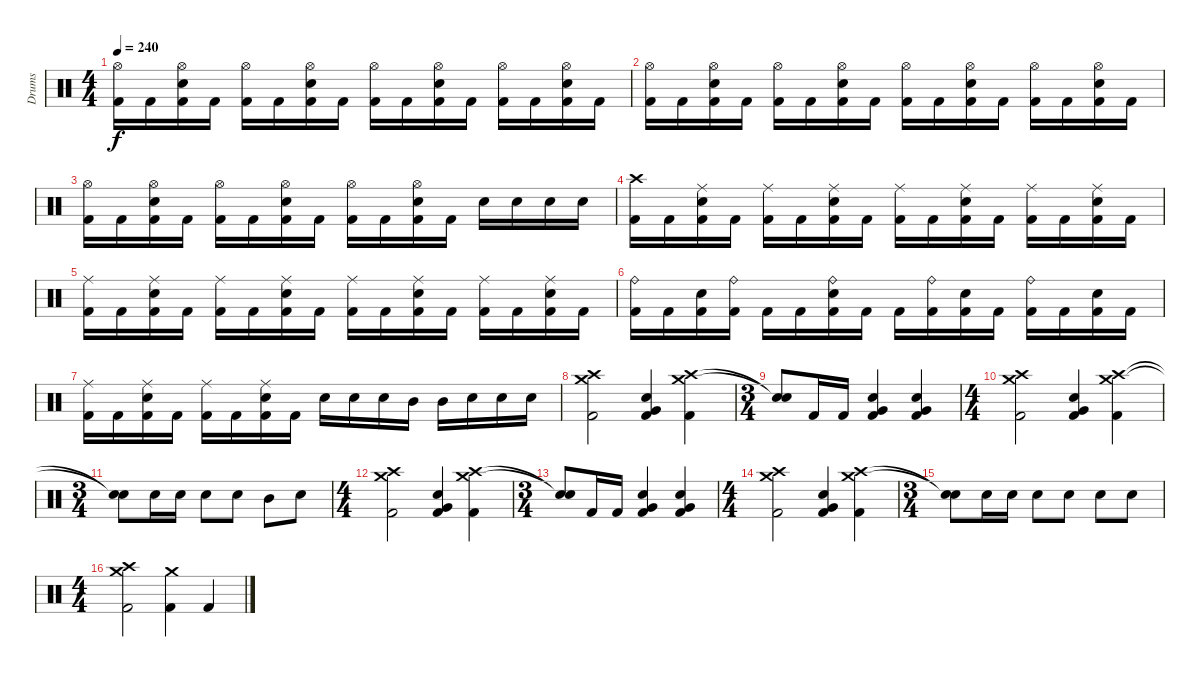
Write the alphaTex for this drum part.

\track ("Drums" "Drums") {instrument percussion}
\staff {score}
\articulation defaults
\ts (4 4)
\tempo 240
\clef neutral
\ks c
("Hi-Hat (open)" "Kick (hit) 2").16{dy f} "Kick (hit) 2".16 ("Hi-Hat (open)" "Electric Snare (hit)" "Kick (hit) 2").16 "Kick (hit) 2".16 ("Hi-Hat (open)" "Kick (hit) 2").16 "Kick (hit) 2".16 ("Hi-Hat (open)" "Electric Snare (hit)" "Kick (hit) 2").16 "Kick (hit) 2".16 ("Hi-Hat (open)" "Kick (hit) 2").16 "Kick (hit) 2".16 ("Hi-Hat (open)" "Electric Snare (hit)" "Kick (hit) 2").16 "Kick (hit) 2".16 ("Hi-Hat (open)" "Kick (hit) 2").16 "Kick (hit) 2".16 ("Hi-Hat (open)" "Electric Snare (hit)" "Kick (hit) 2").16 "Kick (hit) 2".16 |
("Hi-Hat (open)" "Kick (hit) 2").16 "Kick (hit) 2".16 ("Hi-Hat (open)" "Electric Snare (hit)" "Kick (hit) 2").16 "Kick (hit) 2".16 ("Hi-Hat (open)" "Kick (hit) 2").16 "Kick (hit) 2".16 ("Hi-Hat (open)" "Electric Snare (hit)" "Kick (hit) 2").16 "Kick (hit) 2".16 ("Hi-Hat (open)" "Kick (hit) 2").16 "Kick (hit) 2".16 ("Hi-Hat (open)" "Electric Snare (hit)" "Kick (hit) 2").16 "Kick (hit) 2".16 ("Hi-Hat (open)" "Kick (hit) 2").16 "Kick (hit) 2".16 ("Hi-Hat (open)" "Electric Snare (hit)" "Kick (hit) 2").16 "Kick (hit) 2".16 |
("Hi-Hat (open)" "Kick (hit) 2").16 "Kick (hit) 2".16 ("Hi-Hat (open)" "Electric Snare (hit)" "Kick (hit) 2").16 "Kick (hit) 2".16 ("Hi-Hat (open)" "Kick (hit) 2").16 "Kick (hit) 2".16 ("Hi-Hat (open)" "Electric Snare (hit)" "Kick (hit) 2").16 "Kick (hit) 2".16 ("Hi-Hat (open)" "Kick (hit) 2").16 "Kick (hit) 2".16 ("Hi-Hat (open)" "Electric Snare (hit)" "Kick (hit) 2").16 "Kick (hit) 2".16 "Electric Snare (hit)".16 "Electric Snare (hit)".16 "Electric Snare (hit)".16 "Electric Snare (hit)".16 |
("Crash high (hit)" "Kick (hit) 2").16 "Kick (hit) 2".16 ("Ride (middle)" "Electric Snare (hit)" "Kick (hit) 2").16 "Kick (hit) 2".16 ("Ride (middle)" "Kick (hit) 2").16 "Kick (hit) 2".16 ("Ride (middle)" "Electric Snare (hit)" "Kick (hit) 2").16 "Kick (hit) 2".16 ("Ride (middle)" "Kick (hit) 2").16 "Kick (hit) 2".16 ("Ride (middle)" "Electric Snare (hit)" "Kick (hit) 2").16 "Kick (hit) 2".16 ("Ride (middle)" "Kick (hit) 2").16 "Kick (hit) 2".16 ("Ride (middle)" "Electric Snare (hit)" "Kick (hit) 2").16 "Kick (hit) 2".16 |
("Ride (middle)" "Kick (hit) 2").16 "Kick (hit) 2".16 ("Ride (middle)" "Electric Snare (hit)" "Kick (hit) 2").16 "Kick (hit) 2".16 ("Ride (middle)" "Kick (hit) 2").16 "Kick (hit) 2".16 ("Ride (middle)" "Electric Snare (hit)" "Kick (hit) 2").16 "Kick (hit) 2".16 ("Ride (middle)" "Kick (hit) 2").16 "Kick (hit) 2".16 ("Ride (middle)" "Electric Snare (hit)" "Kick (hit) 2").16 "Kick (hit) 2".16 ("Ride (middle)" "Kick (hit) 2").16 "Kick (hit) 2".16 ("Ride (middle)" "Electric Snare (hit)" "Kick (hit) 2").16 "Kick (hit) 2".16 |
("Ride (bell)" "Kick (hit) 2").16 "Kick (hit) 2".16 ("Electric Snare (hit)" "Kick (hit) 2").16 ("Ride (bell)" "Kick (hit) 2").16 "Kick (hit) 2".16 "Kick (hit) 2".16 ("Ride (bell)" "Electric Snare (hit)" "Kick (hit) 2").16 "Kick (hit) 2".16 "Kick (hit) 2".16 ("Ride (bell)" "Kick (hit) 2").16 ("Electric Snare (hit)" "Kick (hit) 2").16 "Kick (hit) 2".16 ("Ride (bell)" "Kick (hit) 2").16 "Kick (hit) 2".16 ("Electric Snare (hit)" "Kick (hit) 2").16 "Kick (hit) 2".16 |
("Ride (middle)" "Kick (hit) 2").16 "Kick (hit) 2".16 ("Ride (middle)" "Electric Snare (hit)" "Kick (hit) 2").16 "Kick (hit) 2".16 ("Ride (middle)" "Kick (hit) 2").16 "Kick (hit) 2".16 ("Ride (middle)" "Electric Snare (hit)" "Kick (hit) 2").16 "Kick (hit) 2".16 "Electric Snare (hit)".16 "Electric Snare (hit)".16 "Electric Snare (hit)".16 "Mid Tom (hit)".16 "Mid Tom (hit)".16 "Electric Snare (hit)".16 "Electric Snare (hit)".16 "Electric Snare (hit)".16 |
("Crash medium (hit)" "Crash high (hit)" "Kick (hit) 2").2 ("Very Low Tom (hit)" "Electric Snare (hit)" "Kick (hit) 2").4 ("Crash medium (hit)" "Crash high (hit)" "Kick (hit) 2").4 |
\ts (3 4)
("Snare (hit)"{t} "Snare (hit)"{t}).8 "Kick (hit) 2".16 "Kick (hit) 2".16 ("Very Low Tom (hit)" "Electric Snare (hit)" "Kick (hit) 2").4 ("Very Low Tom (hit)" "Electric Snare (hit)" "Kick (hit) 2").4 |
\ts (4 4)
("Crash medium (hit)" "Crash high (hit)" "Kick (hit) 2").2 ("Very Low Tom (hit)" "Electric Snare (hit)" "Kick (hit) 2").4 ("Crash medium (hit)" "Crash high (hit)" "Kick (hit) 2").4 |
\ts (3 4)
("Snare (hit)"{t} "Snare (hit)"{t}).8 "Electric Snare (hit)".16 "Electric Snare (hit)".16 "Electric Snare (hit)".8 "Electric Snare (hit)".8 "Mid Tom (hit)".8 "Electric Snare (hit)".8 |
\ts (4 4)
("Crash medium (hit)" "Crash high (hit)" "Kick (hit) 2").2 ("Very Low Tom (hit)" "Electric Snare (hit)" "Kick (hit) 2").4 ("Crash medium (hit)" "Crash high (hit)" "Kick (hit) 2").4 |
\ts (3 4)
("Snare (hit)"{t} "Snare (hit)"{t}).8 "Kick (hit) 2".16 "Kick (hit) 2".16 ("Very Low Tom (hit)" "Electric Snare (hit)" "Kick (hit) 2").4 ("Very Low Tom (hit)" "Electric Snare (hit)" "Kick (hit) 2").4 |
\ts (4 4)
("Crash medium (hit)" "Crash high (hit)" "Kick (hit) 2").2 ("Very Low Tom (hit)" "Electric Snare (hit)" "Kick (hit) 2").4 ("Crash medium (hit)" "Crash high (hit)" "Kick (hit) 2").4 |
\ts (3 4)
("Snare (hit)"{t} "Snare (hit)"{t}).8 "Electric Snare (hit)".16 "Electric Snare (hit)".16 "Electric Snare (hit)".8 "Electric Snare (hit)".8 "Electric Snare (hit)".8 "Electric Snare (hit)".8 |
\ts (4 4)
("Crash medium (hit)" "Crash high (hit)" "Kick (hit) 2").2 ("Crash medium (hit)" "Kick (hit) 2").4 "Kick (hit) 2".4
